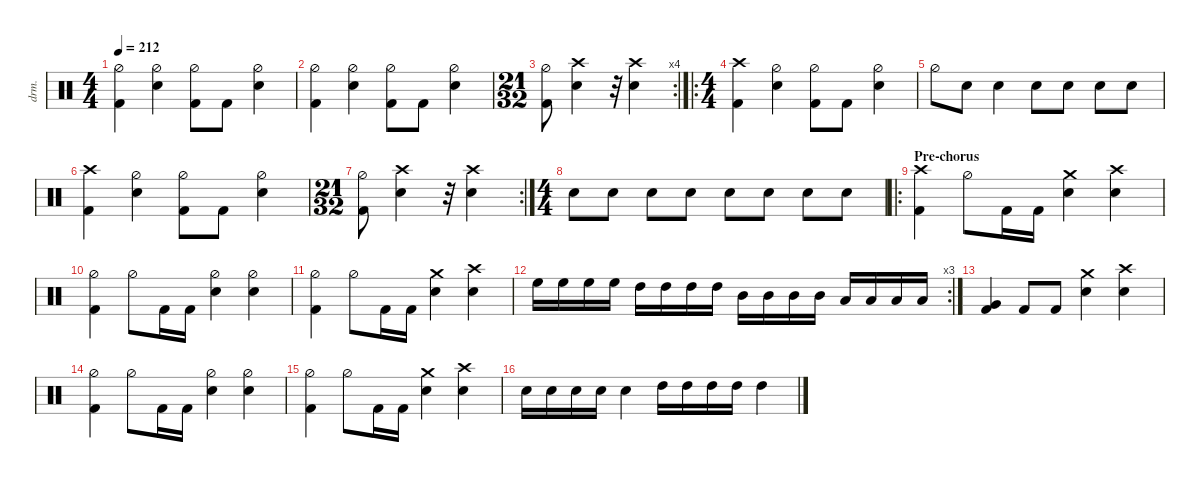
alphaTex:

\defaultSystemsLayout 4
\hideDynamics
\bracketExtendMode nobrackets
\track ("Drums" "drm.") {defaultSystemsLayout 4 multiBarRest instrument percussion}
\staff
\articulation defaults
\ts (4 4)
\tempo 212
\clef neutral
\ks c
("Kick (hit) 2" "Hi-Hat (half)").4{dy f} ("Hi-Hat (half)" "Snare (hit) 2").4 ("Hi-Hat (half)" "Kick (hit) 2").8 "Kick (hit) 2".8 ("Hi-Hat (half)" "Snare (hit) 2").4 |
("Kick (hit) 2" "Hi-Hat (half)").4 ("Hi-Hat (half)" "Snare (hit) 2").4 ("Hi-Hat (half)" "Kick (hit) 2").8 "Kick (hit) 2".8 ("Hi-Hat (half)" "Snare (hit) 2").4 |
\rc 4
\ts (21 32)
\beaming (8 3 2)
("Kick (hit) 2" "Hi-Hat (half)").8 ("Snare (hit) 2" "Crash high (hit)").4 r.32 ("Snare (hit) 2" "Crash high (hit)").4 |
\ro
\ts (4 4)
\beaming (8 2 2 2 2)
("Crash high (hit)" "Kick (hit) 2").4 ("Hi-Hat (half)" "Snare (hit) 2").4 ("Hi-Hat (half)" "Kick (hit) 2").8 "Kick (hit) 2".8 ("Hi-Hat (half)" "Snare (hit) 2").4 |
"Hi-Hat (half)".8 "Snare (hit) 2".8 "Snare (hit) 2".4 "Snare (hit) 2".8 "Snare (hit) 2".8 "Snare (hit) 2".8 "Snare (hit) 2".8 |
("Crash high (hit)" "Kick (hit) 2").4 ("Hi-Hat (half)" "Snare (hit) 2").4 ("Hi-Hat (half)" "Kick (hit) 2").8 "Kick (hit) 2".8 ("Hi-Hat (half)" "Snare (hit) 2").4 |
\rc 2
\ts (21 32)
\beaming (8 3 2)
("Kick (hit) 2" "Hi-Hat (half)").8 ("Snare (hit) 2" "Crash high (hit)").4 r.32 ("Snare (hit) 2" "Crash high (hit)").4 |
\ts (4 4)
\beaming (8 2 2 2 2)
"Snare (hit) 2".8 "Snare (hit) 2".8 "Snare (hit) 2".8 "Snare (hit) 2".8 "Snare (hit) 2".8 "Snare (hit) 2".8 "Snare (hit) 2".8 "Snare (hit) 2".8 |
\ro
\section ("" "Pre-chorus")
("Crash high (hit)" "Kick (hit) 2").4 "Hi-Hat (half)".8 "Kick (hit) 2".16 "Kick (hit) 2".16 ("Snare (hit) 2" "Crash medium (hit)").4 ("Snare (hit) 2" "Crash high (hit)").4 |
("Hi-Hat (half)" "Kick (hit) 2").4 "Hi-Hat (half)".8 "Kick (hit) 2".16 "Kick (hit) 2".16 ("Snare (hit) 2" "Hi-Hat (half)").4 ("Snare (hit) 2" "Hi-Hat (half)").4 |
("Hi-Hat (half)" "Kick (hit) 2").4 "Hi-Hat (half)".8 "Kick (hit) 2".16 "Kick (hit) 2".16 ("Snare (hit) 2" "Crash medium (hit)").4 ("Snare (hit) 2" "Crash high (hit)").4 |
\rc 3 "High Floor Tom (hit)".16{dy fff} "High Floor Tom (hit)".16 "High Floor Tom (hit)".16 "High Floor Tom (hit)".16 "High Tom (hit)".16 "High Tom (hit)".16 "High Tom (hit)".16 "High Tom (hit)".16 "Mid Tom (hit)".16 "Mid Tom (hit)".16 "Mid Tom (hit)".16 "Mid Tom (hit)".16 "Low Tom (hit)".16 "Low Tom (hit)".16 "Low Tom (hit)".16 "Low Tom (hit)".16
|
("Kick (hit) 2" "Very Low Tom (hit)").4{dy f} "Kick (hit) 2".8 "Kick (hit) 2".8 ("Snare (hit) 2" "Crash medium (hit)").4 ("Snare (hit) 2" "Crash high (hit)").4 |
("Hi-Hat (half)" "Kick (hit) 2").4 "Hi-Hat (half)".8 "Kick (hit) 2".16 "Kick (hit) 2".16 ("Snare (hit) 2" "Hi-Hat (half)").4 ("Snare (hit) 2" "Hi-Hat (half)").4 |
("Hi-Hat (half)" "Kick (hit) 2").4 "Hi-Hat (half)".8 "Kick (hit) 2".16 "Kick (hit) 2".16 ("Snare (hit) 2" "Crash medium (hit)").4 ("Snare (hit) 2" "Crash high (hit)").4 |
"Snare (hit) 2".16 "Snare (hit) 2".16{dy mf} "Snare (hit) 2".16 "Snare (hit) 2".16 "Snare (hit) 2".4{dy f} "High Tom (hit)".16{dy ff} "High Tom (hit)".16 "High Tom (hit)".16 "High Tom (hit)".16 "High Tom (hit)".4
